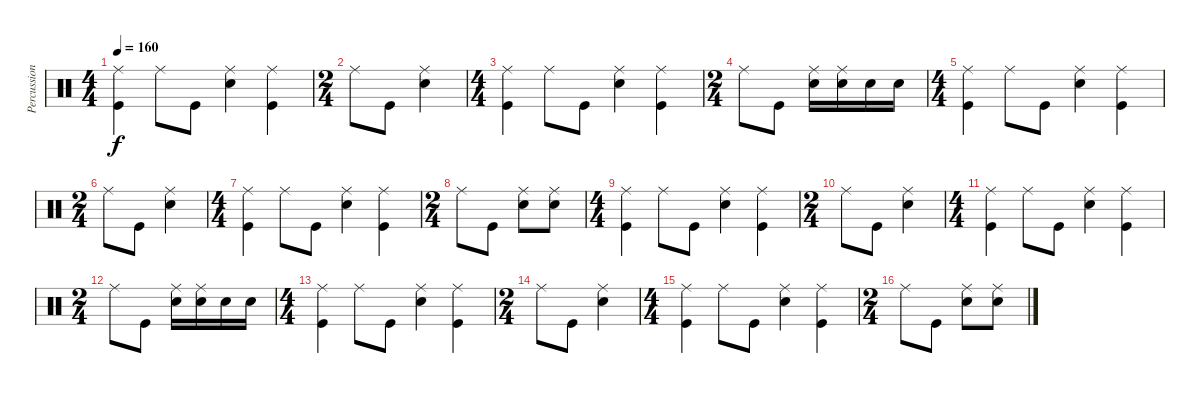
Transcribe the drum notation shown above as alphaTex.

\track ("Percussion" "Percussion") {instrument percussion}
\staff {score}
\articulation defaults
\ts (4 4)
\tempo 160
\clef neutral
\ks c
("Ride (middle)" "Kick (hit)").4{dy f} "Ride (middle)".8 "Kick (hit)".8 ("Ride (middle)" "Electric Snare (hit)").4 ("Ride (middle)" "Kick (hit)").4 |
\ts (2 4)
"Ride (middle)".8 "Kick (hit)".8 ("Ride (middle)" "Electric Snare (hit)").4 |
\ts (4 4)
("Ride (middle)" "Kick (hit)").4 "Ride (middle)".8 "Kick (hit)".8 ("Ride (middle)" "Electric Snare (hit)").4 ("Ride (middle)" "Kick (hit)").4 |
\ts (2 4)
"Ride (middle)".8 "Kick (hit)".8 ("Ride (middle)" "Electric Snare (hit)").16 ("Ride (middle)" "Electric Snare (hit)").16 "Electric Snare (hit)".16 "Electric Snare (hit)".16 |
\ts (4 4)
("Ride (middle)" "Kick (hit)").4 "Ride (middle)".8 "Kick (hit)".8 ("Ride (middle)" "Electric Snare (hit)").4 ("Ride (middle)" "Kick (hit)").4 |
\ts (2 4)
"Ride (middle)".8 "Kick (hit)".8 ("Ride (middle)" "Electric Snare (hit)").4 |
\ts (4 4)
("Ride (middle)" "Kick (hit)").4 "Ride (middle)".8 "Kick (hit)".8 ("Ride (middle)" "Electric Snare (hit)").4 ("Ride (middle)" "Kick (hit)").4 |
\ts (2 4)
"Ride (middle)".8 "Kick (hit)".8 ("Ride (middle)" "Electric Snare (hit)").8 ("Ride (middle)" "Electric Snare (hit)").8 |
\ts (4 4)
("Ride (middle)" "Kick (hit)").4 "Ride (middle)".8 "Kick (hit)".8 ("Ride (middle)" "Electric Snare (hit)").4 ("Ride (middle)" "Kick (hit)").4 |
\ts (2 4)
"Ride (middle)".8 "Kick (hit)".8 ("Ride (middle)" "Electric Snare (hit)").4 |
\ts (4 4)
("Ride (middle)" "Kick (hit)").4 "Ride (middle)".8 "Kick (hit)".8 ("Ride (middle)" "Electric Snare (hit)").4 ("Ride (middle)" "Kick (hit)").4 |
\ts (2 4)
"Ride (middle)".8 "Kick (hit)".8 ("Ride (middle)" "Electric Snare (hit)").16 ("Ride (middle)" "Electric Snare (hit)").16 "Electric Snare (hit)".16 "Electric Snare (hit)".16 |
\ts (4 4)
("Ride (middle)" "Kick (hit)").4 "Ride (middle)".8 "Kick (hit)".8 ("Ride (middle)" "Electric Snare (hit)").4 ("Ride (middle)" "Kick (hit)").4 |
\ts (2 4)
"Ride (middle)".8 "Kick (hit)".8 ("Ride (middle)" "Electric Snare (hit)").4 |
\ts (4 4)
("Ride (middle)" "Kick (hit)").4 "Ride (middle)".8 "Kick (hit)".8 ("Ride (middle)" "Electric Snare (hit)").4 ("Ride (middle)" "Kick (hit)").4 |
\ts (2 4)
"Ride (middle)".8 "Kick (hit)".8 ("Ride (middle)" "Electric Snare (hit)").8 ("Ride (middle)" "Electric Snare (hit)").8
